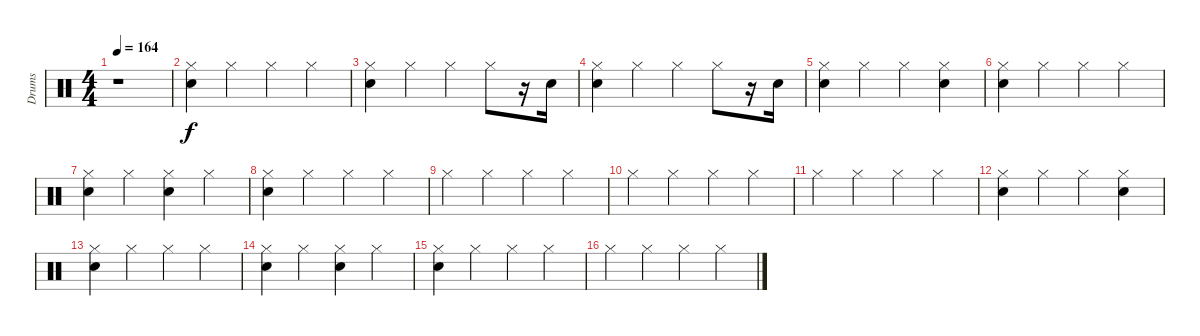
\track ("Drums" "Drums") {instrument percussion}
\staff {score}
\articulation defaults
\ts (4 4)
\tempo 164
\tempo 82
\tempo 164
\clef neutral
\ks c
r.1{dy f} |
("Electric Snare (hit)" "Hi-Hat (closed)").4 "Hi-Hat (closed)".4 "Hi-Hat (closed)".4 "Hi-Hat (closed)".4 |
("Electric Snare (hit)" "Hi-Hat (closed)").4 "Hi-Hat (closed)".4 "Hi-Hat (closed)".4 "Hi-Hat (closed)".8 r.16 "Snare (hit)".16 |
("Electric Snare (hit)" "Hi-Hat (closed)").4 "Hi-Hat (closed)".4 "Hi-Hat (closed)".4 "Hi-Hat (closed)".8 r.16 "Snare (hit)".16 |
("Electric Snare (hit)" "Hi-Hat (closed)").4 "Hi-Hat (closed)".4 "Hi-Hat (closed)".4 ("Snare (hit)" "Hi-Hat (closed)").4 |
("Electric Snare (hit)" "Hi-Hat (closed)").4 "Hi-Hat (closed)".4 "Hi-Hat (closed)".4 "Hi-Hat (closed)".4 |
("Electric Snare (hit)" "Hi-Hat (closed)").4 "Hi-Hat (closed)".4 ("Snare (hit)" "Hi-Hat (closed)").4 "Hi-Hat (closed)".4 |
("Electric Snare (hit)" "Hi-Hat (closed)").4 "Hi-Hat (closed)".4 "Hi-Hat (closed)".4 "Hi-Hat (closed)".4 |
"Hi-Hat (closed)".4 "Hi-Hat (closed)".4 "Hi-Hat (closed)".4 "Hi-Hat (closed)".4 |
"Hi-Hat (closed)".4 "Hi-Hat (closed)".4 "Hi-Hat (closed)".4 "Hi-Hat (closed)".4 |
"Hi-Hat (closed)".4 "Hi-Hat (closed)".4 "Hi-Hat (closed)".4 "Hi-Hat (closed)".4 |
("Electric Snare (hit)" "Hi-Hat (closed)").4 "Hi-Hat (closed)".4 "Hi-Hat (closed)".4 ("Snare (hit)" "Hi-Hat (closed)").4 |
("Electric Snare (hit)" "Hi-Hat (closed)").4 "Hi-Hat (closed)".4 "Hi-Hat (closed)".4 "Hi-Hat (closed)".4 |
("Electric Snare (hit)" "Hi-Hat (closed)").4 "Hi-Hat (closed)".4 ("Snare (hit)" "Hi-Hat (closed)").4 "Hi-Hat (closed)".4 |
("Electric Snare (hit)" "Hi-Hat (closed)").4 "Hi-Hat (closed)".4 "Hi-Hat (closed)".4 "Hi-Hat (closed)".4 |
"Hi-Hat (closed)".4 "Hi-Hat (closed)".4 "Hi-Hat (closed)".4 "Hi-Hat (closed)".4
